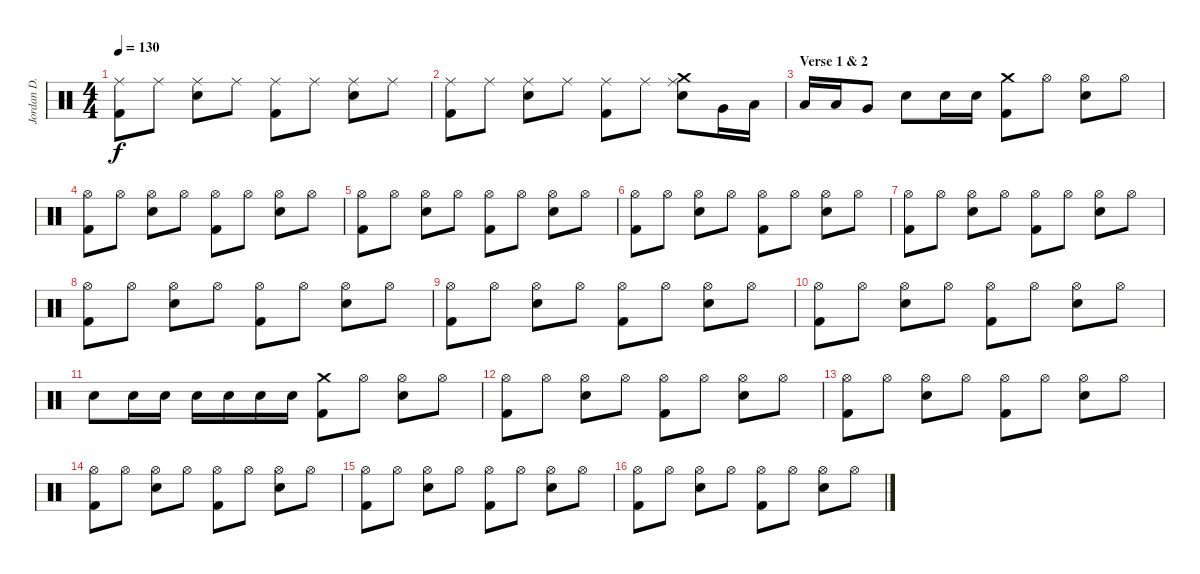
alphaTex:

\track ("Jordan D. Samolesky" "Jordan D. ") {instrument percussion}
\staff {score}
\articulation defaults
\ts (4 4)
\tempo 130
\clef neutral
\ks c
("Ride (middle)" "Kick (hit) 2").8{dy f} "Ride (middle)".8 ("Electric Snare (hit)" "Ride (middle)").8 "Ride (middle)".8 ("Ride (middle)" "Kick (hit) 2").8 "Ride (middle)".8 ("Electric Snare (hit)" "Ride (middle)").8 "Ride (middle)".8 |
("Ride (middle)" "Kick (hit) 2").8 "Ride (middle)".8 ("Electric Snare (hit)" "Ride (middle)").8 "Ride (middle)".8 ("Ride (middle)" "Kick (hit) 2").8 "Ride (middle)".8 ("Crash medium (hit)" "Electric Snare (hit)" "Ride (middle)").8 "Very Low Tom (hit)".16 "Low Floor Tom (hit)".16 |
\section ("" "Verse 1 & 2")
"Low Tom (hit)".16 "Low Tom (hit)".16 "Very Low Tom (hit)".8 "Electric Snare (hit)".8 "Electric Snare (hit)".16 "Electric Snare (hit)".16 ("Crash medium (hit)" "Kick (hit) 2").8 "Hi-Hat (open)".8 ("Electric Snare (hit)" "Hi-Hat (open)").8 "Hi-Hat (open)".8 |
("Hi-Hat (open)" "Kick (hit) 2").8 "Hi-Hat (open)".8 ("Electric Snare (hit)" "Hi-Hat (open)").8 "Hi-Hat (open)".8 ("Hi-Hat (open)" "Kick (hit) 2").8 "Hi-Hat (open)".8 ("Electric Snare (hit)" "Hi-Hat (open)").8 "Hi-Hat (open)".8 |
("Hi-Hat (open)" "Kick (hit) 2").8 "Hi-Hat (open)".8 ("Electric Snare (hit)" "Hi-Hat (open)").8 "Hi-Hat (open)".8 ("Hi-Hat (open)" "Kick (hit) 2").8 "Hi-Hat (open)".8 ("Electric Snare (hit)" "Hi-Hat (open)").8 "Hi-Hat (open)".8 |
("Hi-Hat (open)" "Kick (hit) 2").8 "Hi-Hat (open)".8 ("Electric Snare (hit)" "Hi-Hat (open)").8 "Hi-Hat (open)".8 ("Hi-Hat (open)" "Kick (hit) 2").8 "Hi-Hat (open)".8 ("Electric Snare (hit)" "Hi-Hat (open)").8 "Hi-Hat (open)".8 |
("Hi-Hat (open)" "Kick (hit) 2").8 "Hi-Hat (open)".8 ("Electric Snare (hit)" "Hi-Hat (open)").8 "Hi-Hat (open)".8 ("Hi-Hat (open)" "Kick (hit) 2").8 "Hi-Hat (open)".8 ("Electric Snare (hit)" "Hi-Hat (open)").8 "Hi-Hat (open)".8 |
("Hi-Hat (open)" "Kick (hit) 2").8 "Hi-Hat (open)".8 ("Electric Snare (hit)" "Hi-Hat (open)").8 "Hi-Hat (open)".8 ("Hi-Hat (open)" "Kick (hit) 2").8 "Hi-Hat (open)".8 ("Electric Snare (hit)" "Hi-Hat (open)").8 "Hi-Hat (open)".8 |
("Hi-Hat (open)" "Kick (hit) 2").8 "Hi-Hat (open)".8 ("Electric Snare (hit)" "Hi-Hat (open)").8 "Hi-Hat (open)".8 ("Hi-Hat (open)" "Kick (hit) 2").8 "Hi-Hat (open)".8 ("Electric Snare (hit)" "Hi-Hat (open)").8 "Hi-Hat (open)".8 |
("Hi-Hat (open)" "Kick (hit) 2").8 "Hi-Hat (open)".8 ("Electric Snare (hit)" "Hi-Hat (open)").8 "Hi-Hat (open)".8 ("Hi-Hat (open)" "Kick (hit) 2").8 "Hi-Hat (open)".8 ("Electric Snare (hit)" "Hi-Hat (open)").8 "Hi-Hat (open)".8 |
"Electric Snare (hit)".8 "Electric Snare (hit)".16 "Electric Snare (hit)".16 "Electric Snare (hit)".16 "Electric Snare (hit)".16 "Electric Snare (hit)".16 "Electric Snare (hit)".16 ("Crash medium (hit)" "Kick (hit) 2").8 "Hi-Hat (open)".8 ("Electric Snare (hit)" "Hi-Hat (open)").8 "Hi-Hat (open)".8 |
("Hi-Hat (open)" "Kick (hit) 2").8 "Hi-Hat (open)".8 ("Electric Snare (hit)" "Hi-Hat (open)").8 "Hi-Hat (open)".8 ("Hi-Hat (open)" "Kick (hit) 2").8 "Hi-Hat (open)".8 ("Electric Snare (hit)" "Hi-Hat (open)").8 "Hi-Hat (open)".8 |
("Hi-Hat (open)" "Kick (hit) 2").8 "Hi-Hat (open)".8 ("Electric Snare (hit)" "Hi-Hat (open)").8 "Hi-Hat (open)".8 ("Hi-Hat (open)" "Kick (hit) 2").8 "Hi-Hat (open)".8 ("Electric Snare (hit)" "Hi-Hat (open)").8 "Hi-Hat (open)".8 |
("Hi-Hat (open)" "Kick (hit) 2").8 "Hi-Hat (open)".8 ("Electric Snare (hit)" "Hi-Hat (open)").8 "Hi-Hat (open)".8 ("Hi-Hat (open)" "Kick (hit) 2").8 "Hi-Hat (open)".8 ("Electric Snare (hit)" "Hi-Hat (open)").8 "Hi-Hat (open)".8 |
("Hi-Hat (open)" "Kick (hit) 2").8 "Hi-Hat (open)".8 ("Electric Snare (hit)" "Hi-Hat (open)").8 "Hi-Hat (open)".8 ("Hi-Hat (open)" "Kick (hit) 2").8 "Hi-Hat (open)".8 ("Electric Snare (hit)" "Hi-Hat (open)").8 "Hi-Hat (open)".8 |
("Hi-Hat (open)" "Kick (hit) 2").8 "Hi-Hat (open)".8 ("Electric Snare (hit)" "Hi-Hat (open)").8 "Hi-Hat (open)".8 ("Hi-Hat (open)" "Kick (hit) 2").8 "Hi-Hat (open)".8 ("Electric Snare (hit)" "Hi-Hat (open)").8 "Hi-Hat (open)".8
